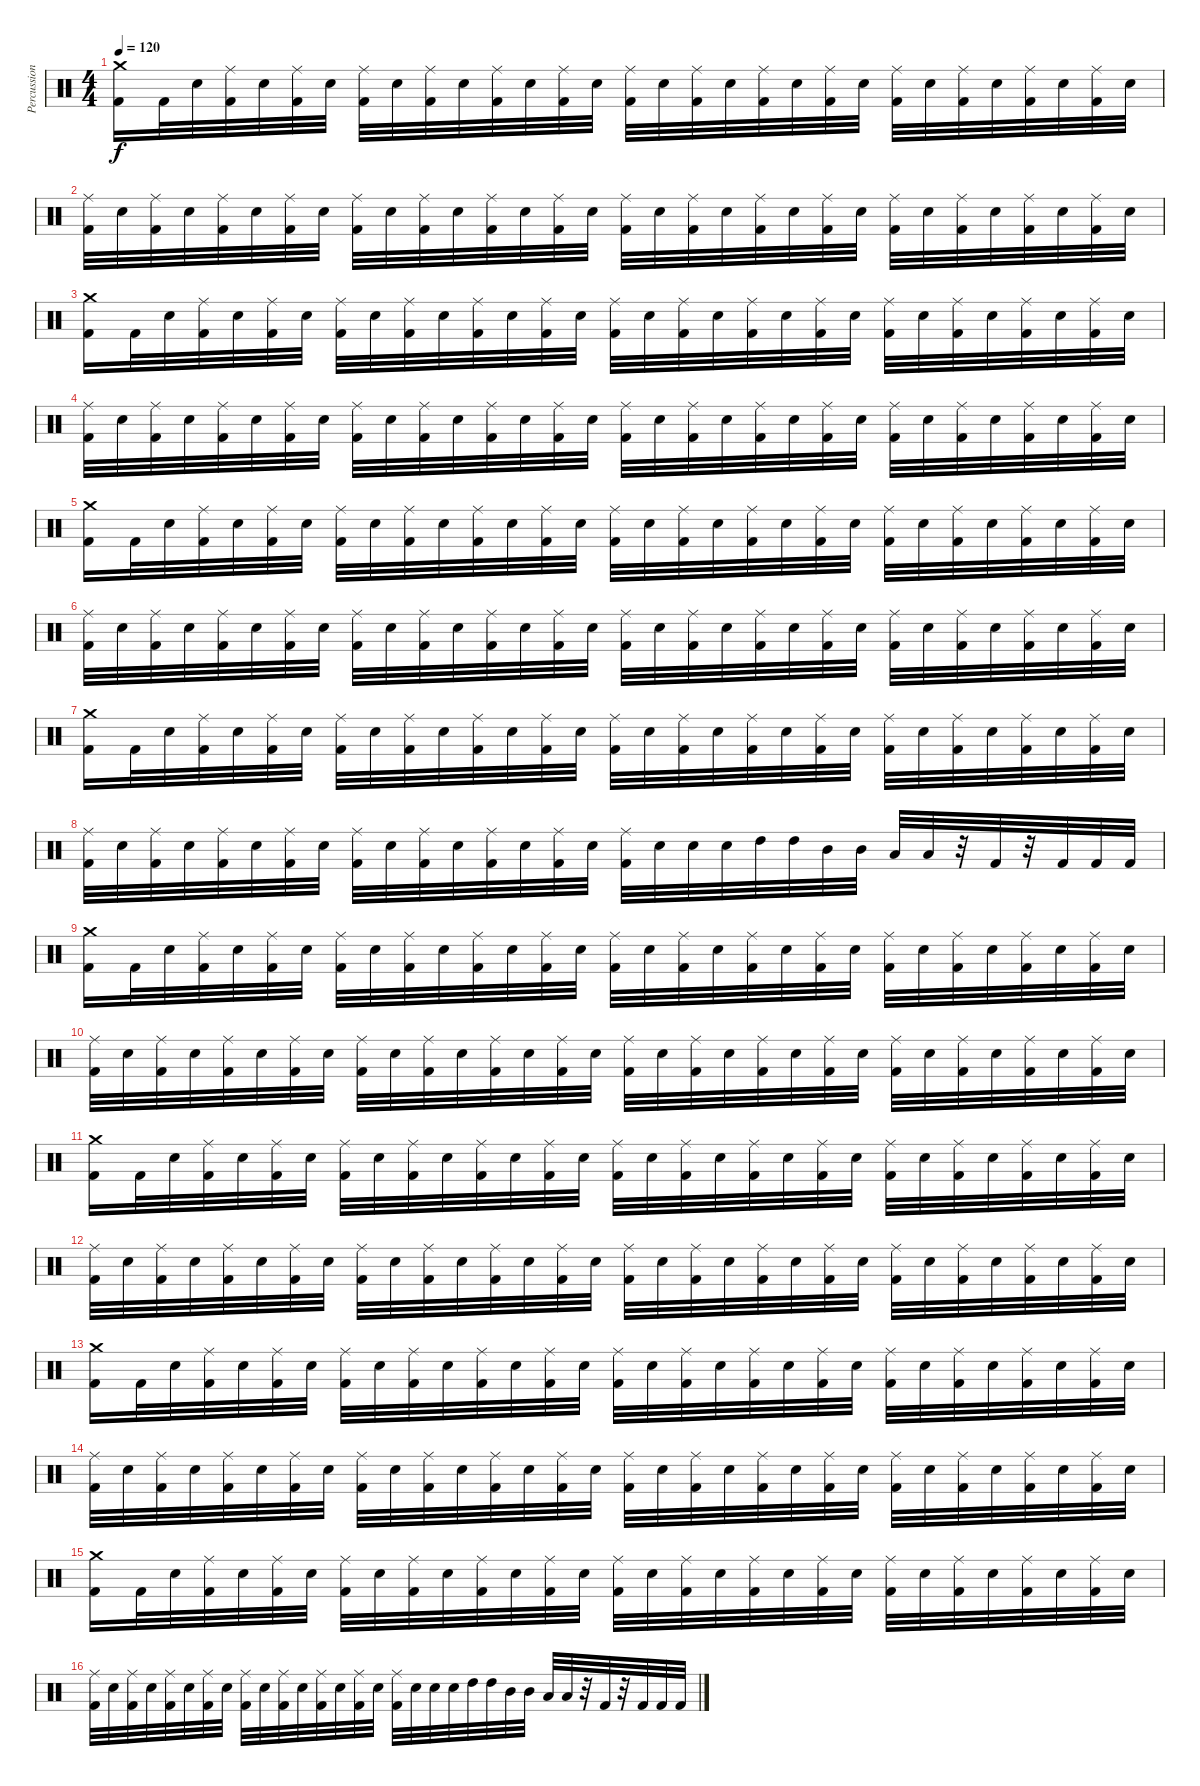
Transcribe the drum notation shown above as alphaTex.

\track ("Percussions" "Percussion") {instrument percussion}
\staff {score}
\articulation defaults
\ts (4 4)
\tempo 120
\clef neutral
\ks c
("Kick (hit) 2" "Crash medium (hit)").16{dy f} "Kick (hit) 2".32 "Electric Snare (hit)".32 ("Kick (hit) 2" "Ride (middle)").32 "Electric Snare (hit)".32 ("Kick (hit) 2" "Ride (middle)").32 "Electric Snare (hit)".32 ("Kick (hit) 2" "Ride (middle)").32 "Electric Snare (hit)".32 ("Kick (hit) 2" "Ride (middle)").32 "Electric Snare (hit)".32 ("Kick (hit) 2" "Ride (middle)").32 "Electric Snare (hit)".32 ("Kick (hit) 2" "Ride (middle)").32 "Electric Snare (hit)".32 ("Kick (hit) 2" "Ride (middle)").32 "Electric Snare (hit)".32 ("Kick (hit) 2" "Ride (middle)").32 "Electric Snare (hit)".32 ("Kick (hit) 2" "Ride (middle)").32 "Electric Snare (hit)".32 ("Kick (hit) 2" "Ride (middle)").32 "Electric Snare (hit)".32 ("Kick (hit) 2" "Ride (middle)").32 "Electric Snare (hit)".32 ("Kick (hit) 2" "Ride (middle)").32 "Electric Snare (hit)".32 ("Kick (hit) 2" "Ride (middle)").32 "Electric Snare (hit)".32 ("Kick (hit) 2" "Ride (middle)").32 "Electric Snare (hit)".32 |
("Kick (hit) 2" "Ride (middle)").32 "Electric Snare (hit)".32 ("Kick (hit) 2" "Ride (middle)").32 "Electric Snare (hit)".32 ("Kick (hit) 2" "Ride (middle)").32 "Electric Snare (hit)".32 ("Kick (hit) 2" "Ride (middle)").32 "Electric Snare (hit)".32 ("Kick (hit) 2" "Ride (middle)").32 "Electric Snare (hit)".32 ("Kick (hit) 2" "Ride (middle)").32 "Electric Snare (hit)".32 ("Kick (hit) 2" "Ride (middle)").32 "Electric Snare (hit)".32 ("Kick (hit) 2" "Ride (middle)").32 "Electric Snare (hit)".32 ("Kick (hit) 2" "Ride (middle)").32 "Electric Snare (hit)".32 ("Kick (hit) 2" "Ride (middle)").32 "Electric Snare (hit)".32 ("Kick (hit) 2" "Ride (middle)").32 "Electric Snare (hit)".32 ("Kick (hit) 2" "Ride (middle)").32 "Electric Snare (hit)".32 ("Kick (hit) 2" "Ride (middle)").32 "Electric Snare (hit)".32 ("Kick (hit) 2" "Ride (middle)").32 "Electric Snare (hit)".32 ("Kick (hit) 2" "Ride (middle)").32 "Electric Snare (hit)".32 ("Kick (hit) 2" "Ride (middle)").32 "Electric Snare (hit)".32 |
("Kick (hit) 2" "Crash medium (hit)").16 "Kick (hit) 2".32 "Electric Snare (hit)".32 ("Kick (hit) 2" "Ride (middle)").32 "Electric Snare (hit)".32 ("Kick (hit) 2" "Ride (middle)").32 "Electric Snare (hit)".32 ("Kick (hit) 2" "Ride (middle)").32 "Electric Snare (hit)".32 ("Kick (hit) 2" "Ride (middle)").32 "Electric Snare (hit)".32 ("Kick (hit) 2" "Ride (middle)").32 "Electric Snare (hit)".32 ("Kick (hit) 2" "Ride (middle)").32 "Electric Snare (hit)".32 ("Kick (hit) 2" "Ride (middle)").32 "Electric Snare (hit)".32 ("Kick (hit) 2" "Ride (middle)").32 "Electric Snare (hit)".32 ("Kick (hit) 2" "Ride (middle)").32 "Electric Snare (hit)".32 ("Kick (hit) 2" "Ride (middle)").32 "Electric Snare (hit)".32 ("Kick (hit) 2" "Ride (middle)").32 "Electric Snare (hit)".32 ("Kick (hit) 2" "Ride (middle)").32 "Electric Snare (hit)".32 ("Kick (hit) 2" "Ride (middle)").32 "Electric Snare (hit)".32 ("Kick (hit) 2" "Ride (middle)").32 "Electric Snare (hit)".32 |
("Kick (hit) 2" "Ride (middle)").32 "Electric Snare (hit)".32 ("Kick (hit) 2" "Ride (middle)").32 "Electric Snare (hit)".32 ("Kick (hit) 2" "Ride (middle)").32 "Electric Snare (hit)".32 ("Kick (hit) 2" "Ride (middle)").32 "Electric Snare (hit)".32 ("Kick (hit) 2" "Ride (middle)").32 "Electric Snare (hit)".32 ("Kick (hit) 2" "Ride (middle)").32 "Electric Snare (hit)".32 ("Kick (hit) 2" "Ride (middle)").32 "Electric Snare (hit)".32 ("Kick (hit) 2" "Ride (middle)").32 "Electric Snare (hit)".32 ("Kick (hit) 2" "Ride (middle)").32 "Electric Snare (hit)".32 ("Kick (hit) 2" "Ride (middle)").32 "Electric Snare (hit)".32 ("Kick (hit) 2" "Ride (middle)").32 "Electric Snare (hit)".32 ("Kick (hit) 2" "Ride (middle)").32 "Electric Snare (hit)".32 ("Kick (hit) 2" "Ride (middle)").32 "Electric Snare (hit)".32 ("Kick (hit) 2" "Ride (middle)").32 "Electric Snare (hit)".32 ("Kick (hit) 2" "Ride (middle)").32 "Electric Snare (hit)".32 ("Kick (hit) 2" "Ride (middle)").32 "Electric Snare (hit)".32 |
("Kick (hit) 2" "Crash medium (hit)").16 "Kick (hit) 2".32 "Electric Snare (hit)".32 ("Kick (hit) 2" "Ride (middle)").32 "Electric Snare (hit)".32 ("Kick (hit) 2" "Ride (middle)").32 "Electric Snare (hit)".32 ("Kick (hit) 2" "Ride (middle)").32 "Electric Snare (hit)".32 ("Kick (hit) 2" "Ride (middle)").32 "Electric Snare (hit)".32 ("Kick (hit) 2" "Ride (middle)").32 "Electric Snare (hit)".32 ("Kick (hit) 2" "Ride (middle)").32 "Electric Snare (hit)".32 ("Kick (hit) 2" "Ride (middle)").32 "Electric Snare (hit)".32 ("Kick (hit) 2" "Ride (middle)").32 "Electric Snare (hit)".32 ("Kick (hit) 2" "Ride (middle)").32 "Electric Snare (hit)".32 ("Kick (hit) 2" "Ride (middle)").32 "Electric Snare (hit)".32 ("Kick (hit) 2" "Ride (middle)").32 "Electric Snare (hit)".32 ("Kick (hit) 2" "Ride (middle)").32 "Electric Snare (hit)".32 ("Kick (hit) 2" "Ride (middle)").32 "Electric Snare (hit)".32 ("Kick (hit) 2" "Ride (middle)").32 "Electric Snare (hit)".32 |
("Kick (hit) 2" "Ride (middle)").32 "Electric Snare (hit)".32 ("Kick (hit) 2" "Ride (middle)").32 "Electric Snare (hit)".32 ("Kick (hit) 2" "Ride (middle)").32 "Electric Snare (hit)".32 ("Kick (hit) 2" "Ride (middle)").32 "Electric Snare (hit)".32 ("Kick (hit) 2" "Ride (middle)").32 "Electric Snare (hit)".32 ("Kick (hit) 2" "Ride (middle)").32 "Electric Snare (hit)".32 ("Kick (hit) 2" "Ride (middle)").32 "Electric Snare (hit)".32 ("Kick (hit) 2" "Ride (middle)").32 "Electric Snare (hit)".32 ("Kick (hit) 2" "Ride (middle)").32 "Electric Snare (hit)".32 ("Kick (hit) 2" "Ride (middle)").32 "Electric Snare (hit)".32 ("Kick (hit) 2" "Ride (middle)").32 "Electric Snare (hit)".32 ("Kick (hit) 2" "Ride (middle)").32 "Electric Snare (hit)".32 ("Kick (hit) 2" "Ride (middle)").32 "Electric Snare (hit)".32 ("Kick (hit) 2" "Ride (middle)").32 "Electric Snare (hit)".32 ("Kick (hit) 2" "Ride (middle)").32 "Electric Snare (hit)".32 ("Kick (hit) 2" "Ride (middle)").32 "Electric Snare (hit)".32 |
("Kick (hit) 2" "Crash medium (hit)").16 "Kick (hit) 2".32 "Electric Snare (hit)".32 ("Kick (hit) 2" "Ride (middle)").32 "Electric Snare (hit)".32 ("Kick (hit) 2" "Ride (middle)").32 "Electric Snare (hit)".32 ("Kick (hit) 2" "Ride (middle)").32 "Electric Snare (hit)".32 ("Kick (hit) 2" "Ride (middle)").32 "Electric Snare (hit)".32 ("Kick (hit) 2" "Ride (middle)").32 "Electric Snare (hit)".32 ("Kick (hit) 2" "Ride (middle)").32 "Electric Snare (hit)".32 ("Kick (hit) 2" "Ride (middle)").32 "Electric Snare (hit)".32 ("Kick (hit) 2" "Ride (middle)").32 "Electric Snare (hit)".32 ("Kick (hit) 2" "Ride (middle)").32 "Electric Snare (hit)".32 ("Kick (hit) 2" "Ride (middle)").32 "Electric Snare (hit)".32 ("Kick (hit) 2" "Ride (middle)").32 "Electric Snare (hit)".32 ("Kick (hit) 2" "Ride (middle)").32 "Electric Snare (hit)".32 ("Kick (hit) 2" "Ride (middle)").32 "Electric Snare (hit)".32 ("Kick (hit) 2" "Ride (middle)").32 "Electric Snare (hit)".32 |
("Kick (hit) 2" "Ride (middle)").32 "Electric Snare (hit)".32 ("Kick (hit) 2" "Ride (middle)").32 "Electric Snare (hit)".32 ("Kick (hit) 2" "Ride (middle)").32 "Electric Snare (hit)".32 ("Kick (hit) 2" "Ride (middle)").32 "Electric Snare (hit)".32 ("Kick (hit) 2" "Ride (middle)").32 "Electric Snare (hit)".32 ("Kick (hit) 2" "Ride (middle)").32 "Electric Snare (hit)".32 ("Kick (hit) 2" "Ride (middle)").32 "Electric Snare (hit)".32 ("Kick (hit) 2" "Ride (middle)").32 "Electric Snare (hit)".32 ("Kick (hit) 2" "Ride (middle)").32 "Electric Snare (hit)".32 "Electric Snare (hit)".32 "Electric Snare (hit)".32 "High Tom (hit)".32 "High Tom (hit)".32 "Mid Tom (hit)".32 "Mid Tom (hit)".32 "Low Tom (hit)".32 "Low Tom (hit)".32 r.32 "Kick (hit) 2".32 r.32 "Kick (hit) 2".32 "Kick (hit) 2".32 "Kick (hit) 2".32 |
("Kick (hit) 2" "Crash medium (hit)").16 "Kick (hit) 2".32 "Electric Snare (hit)".32 ("Kick (hit) 2" "Ride (middle)").32 "Electric Snare (hit)".32 ("Kick (hit) 2" "Ride (middle)").32 "Electric Snare (hit)".32 ("Kick (hit) 2" "Ride (middle)").32 "Electric Snare (hit)".32 ("Kick (hit) 2" "Ride (middle)").32 "Electric Snare (hit)".32 ("Kick (hit) 2" "Ride (middle)").32 "Electric Snare (hit)".32 ("Kick (hit) 2" "Ride (middle)").32 "Electric Snare (hit)".32 ("Kick (hit) 2" "Ride (middle)").32 "Electric Snare (hit)".32 ("Kick (hit) 2" "Ride (middle)").32 "Electric Snare (hit)".32 ("Kick (hit) 2" "Ride (middle)").32 "Electric Snare (hit)".32 ("Kick (hit) 2" "Ride (middle)").32 "Electric Snare (hit)".32 ("Kick (hit) 2" "Ride (middle)").32 "Electric Snare (hit)".32 ("Kick (hit) 2" "Ride (middle)").32 "Electric Snare (hit)".32 ("Kick (hit) 2" "Ride (middle)").32 "Electric Snare (hit)".32 ("Kick (hit) 2" "Ride (middle)").32 "Electric Snare (hit)".32 |
("Kick (hit) 2" "Ride (middle)").32 "Electric Snare (hit)".32 ("Kick (hit) 2" "Ride (middle)").32 "Electric Snare (hit)".32 ("Kick (hit) 2" "Ride (middle)").32 "Electric Snare (hit)".32 ("Kick (hit) 2" "Ride (middle)").32 "Electric Snare (hit)".32 ("Kick (hit) 2" "Ride (middle)").32 "Electric Snare (hit)".32 ("Kick (hit) 2" "Ride (middle)").32 "Electric Snare (hit)".32 ("Kick (hit) 2" "Ride (middle)").32 "Electric Snare (hit)".32 ("Kick (hit) 2" "Ride (middle)").32 "Electric Snare (hit)".32 ("Kick (hit) 2" "Ride (middle)").32 "Electric Snare (hit)".32 ("Kick (hit) 2" "Ride (middle)").32 "Electric Snare (hit)".32 ("Kick (hit) 2" "Ride (middle)").32 "Electric Snare (hit)".32 ("Kick (hit) 2" "Ride (middle)").32 "Electric Snare (hit)".32 ("Kick (hit) 2" "Ride (middle)").32 "Electric Snare (hit)".32 ("Kick (hit) 2" "Ride (middle)").32 "Electric Snare (hit)".32 ("Kick (hit) 2" "Ride (middle)").32 "Electric Snare (hit)".32 ("Kick (hit) 2" "Ride (middle)").32 "Electric Snare (hit)".32 |
("Kick (hit) 2" "Crash medium (hit)").16 "Kick (hit) 2".32 "Electric Snare (hit)".32 ("Kick (hit) 2" "Ride (middle)").32 "Electric Snare (hit)".32 ("Kick (hit) 2" "Ride (middle)").32 "Electric Snare (hit)".32 ("Kick (hit) 2" "Ride (middle)").32 "Electric Snare (hit)".32 ("Kick (hit) 2" "Ride (middle)").32 "Electric Snare (hit)".32 ("Kick (hit) 2" "Ride (middle)").32 "Electric Snare (hit)".32 ("Kick (hit) 2" "Ride (middle)").32 "Electric Snare (hit)".32 ("Kick (hit) 2" "Ride (middle)").32 "Electric Snare (hit)".32 ("Kick (hit) 2" "Ride (middle)").32 "Electric Snare (hit)".32 ("Kick (hit) 2" "Ride (middle)").32 "Electric Snare (hit)".32 ("Kick (hit) 2" "Ride (middle)").32 "Electric Snare (hit)".32 ("Kick (hit) 2" "Ride (middle)").32 "Electric Snare (hit)".32 ("Kick (hit) 2" "Ride (middle)").32 "Electric Snare (hit)".32 ("Kick (hit) 2" "Ride (middle)").32 "Electric Snare (hit)".32 ("Kick (hit) 2" "Ride (middle)").32 "Electric Snare (hit)".32 |
("Kick (hit) 2" "Ride (middle)").32 "Electric Snare (hit)".32 ("Kick (hit) 2" "Ride (middle)").32 "Electric Snare (hit)".32 ("Kick (hit) 2" "Ride (middle)").32 "Electric Snare (hit)".32 ("Kick (hit) 2" "Ride (middle)").32 "Electric Snare (hit)".32 ("Kick (hit) 2" "Ride (middle)").32 "Electric Snare (hit)".32 ("Kick (hit) 2" "Ride (middle)").32 "Electric Snare (hit)".32 ("Kick (hit) 2" "Ride (middle)").32 "Electric Snare (hit)".32 ("Kick (hit) 2" "Ride (middle)").32 "Electric Snare (hit)".32 ("Kick (hit) 2" "Ride (middle)").32 "Electric Snare (hit)".32 ("Kick (hit) 2" "Ride (middle)").32 "Electric Snare (hit)".32 ("Kick (hit) 2" "Ride (middle)").32 "Electric Snare (hit)".32 ("Kick (hit) 2" "Ride (middle)").32 "Electric Snare (hit)".32 ("Kick (hit) 2" "Ride (middle)").32 "Electric Snare (hit)".32 ("Kick (hit) 2" "Ride (middle)").32 "Electric Snare (hit)".32 ("Kick (hit) 2" "Ride (middle)").32 "Electric Snare (hit)".32 ("Kick (hit) 2" "Ride (middle)").32 "Electric Snare (hit)".32 |
("Kick (hit) 2" "Crash medium (hit)").16 "Kick (hit) 2".32 "Electric Snare (hit)".32 ("Kick (hit) 2" "Ride (middle)").32 "Electric Snare (hit)".32 ("Kick (hit) 2" "Ride (middle)").32 "Electric Snare (hit)".32 ("Kick (hit) 2" "Ride (middle)").32 "Electric Snare (hit)".32 ("Kick (hit) 2" "Ride (middle)").32 "Electric Snare (hit)".32 ("Kick (hit) 2" "Ride (middle)").32 "Electric Snare (hit)".32 ("Kick (hit) 2" "Ride (middle)").32 "Electric Snare (hit)".32 ("Kick (hit) 2" "Ride (middle)").32 "Electric Snare (hit)".32 ("Kick (hit) 2" "Ride (middle)").32 "Electric Snare (hit)".32 ("Kick (hit) 2" "Ride (middle)").32 "Electric Snare (hit)".32 ("Kick (hit) 2" "Ride (middle)").32 "Electric Snare (hit)".32 ("Kick (hit) 2" "Ride (middle)").32 "Electric Snare (hit)".32 ("Kick (hit) 2" "Ride (middle)").32 "Electric Snare (hit)".32 ("Kick (hit) 2" "Ride (middle)").32 "Electric Snare (hit)".32 ("Kick (hit) 2" "Ride (middle)").32 "Electric Snare (hit)".32 |
("Kick (hit) 2" "Ride (middle)").32 "Electric Snare (hit)".32 ("Kick (hit) 2" "Ride (middle)").32 "Electric Snare (hit)".32 ("Kick (hit) 2" "Ride (middle)").32 "Electric Snare (hit)".32 ("Kick (hit) 2" "Ride (middle)").32 "Electric Snare (hit)".32 ("Kick (hit) 2" "Ride (middle)").32 "Electric Snare (hit)".32 ("Kick (hit) 2" "Ride (middle)").32 "Electric Snare (hit)".32 ("Kick (hit) 2" "Ride (middle)").32 "Electric Snare (hit)".32 ("Kick (hit) 2" "Ride (middle)").32 "Electric Snare (hit)".32 ("Kick (hit) 2" "Ride (middle)").32 "Electric Snare (hit)".32 ("Kick (hit) 2" "Ride (middle)").32 "Electric Snare (hit)".32 ("Kick (hit) 2" "Ride (middle)").32 "Electric Snare (hit)".32 ("Kick (hit) 2" "Ride (middle)").32 "Electric Snare (hit)".32 ("Kick (hit) 2" "Ride (middle)").32 "Electric Snare (hit)".32 ("Kick (hit) 2" "Ride (middle)").32 "Electric Snare (hit)".32 ("Kick (hit) 2" "Ride (middle)").32 "Electric Snare (hit)".32 ("Kick (hit) 2" "Ride (middle)").32 "Electric Snare (hit)".32 |
("Kick (hit) 2" "Crash medium (hit)").16 "Kick (hit) 2".32 "Electric Snare (hit)".32 ("Kick (hit) 2" "Ride (middle)").32 "Electric Snare (hit)".32 ("Kick (hit) 2" "Ride (middle)").32 "Electric Snare (hit)".32 ("Kick (hit) 2" "Ride (middle)").32 "Electric Snare (hit)".32 ("Kick (hit) 2" "Ride (middle)").32 "Electric Snare (hit)".32 ("Kick (hit) 2" "Ride (middle)").32 "Electric Snare (hit)".32 ("Kick (hit) 2" "Ride (middle)").32 "Electric Snare (hit)".32 ("Kick (hit) 2" "Ride (middle)").32 "Electric Snare (hit)".32 ("Kick (hit) 2" "Ride (middle)").32 "Electric Snare (hit)".32 ("Kick (hit) 2" "Ride (middle)").32 "Electric Snare (hit)".32 ("Kick (hit) 2" "Ride (middle)").32 "Electric Snare (hit)".32 ("Kick (hit) 2" "Ride (middle)").32 "Electric Snare (hit)".32 ("Kick (hit) 2" "Ride (middle)").32 "Electric Snare (hit)".32 ("Kick (hit) 2" "Ride (middle)").32 "Electric Snare (hit)".32 ("Kick (hit) 2" "Ride (middle)").32 "Electric Snare (hit)".32 |
("Kick (hit) 2" "Ride (middle)").32 "Electric Snare (hit)".32 ("Kick (hit) 2" "Ride (middle)").32 "Electric Snare (hit)".32 ("Kick (hit) 2" "Ride (middle)").32 "Electric Snare (hit)".32 ("Kick (hit) 2" "Ride (middle)").32 "Electric Snare (hit)".32 ("Kick (hit) 2" "Ride (middle)").32 "Electric Snare (hit)".32 ("Kick (hit) 2" "Ride (middle)").32 "Electric Snare (hit)".32 ("Kick (hit) 2" "Ride (middle)").32 "Electric Snare (hit)".32 ("Kick (hit) 2" "Ride (middle)").32 "Electric Snare (hit)".32 ("Kick (hit) 2" "Ride (middle)").32 "Electric Snare (hit)".32 "Electric Snare (hit)".32 "Electric Snare (hit)".32 "High Tom (hit)".32 "High Tom (hit)".32 "Mid Tom (hit)".32 "Mid Tom (hit)".32 "Low Tom (hit)".32 "Low Tom (hit)".32 r.32 "Kick (hit) 2".32 r.32 "Kick (hit) 2".32 "Kick (hit) 2".32 "Kick (hit) 2".32
